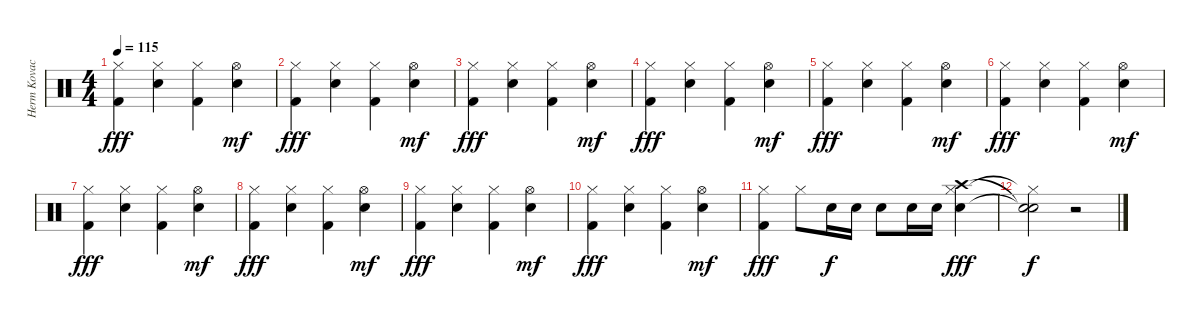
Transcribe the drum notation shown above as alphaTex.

\track ("Herm Kovacs" "Herm Kovac") {instrument percussion}
\staff {score}
\articulation defaults
\ts (4 4)
\tempo 115
\clef neutral
\ks c
("Hi-Hat (closed)" "Kick (hit) 2").4{dy fff} ("Hi-Hat (closed)" "Electric Snare (hit)").4 ("Hi-Hat (closed)" "Kick (hit) 2").4 ("Hi-Hat (open)" "Electric Snare (hit)").4{dy mf} |
("Hi-Hat (closed)" "Kick (hit) 2").4{dy fff} ("Hi-Hat (closed)" "Electric Snare (hit)").4 ("Hi-Hat (closed)" "Kick (hit) 2").4 ("Hi-Hat (open)" "Electric Snare (hit)").4{dy mf} |
("Hi-Hat (closed)" "Kick (hit) 2").4{dy fff} ("Hi-Hat (closed)" "Electric Snare (hit)").4 ("Hi-Hat (closed)" "Kick (hit) 2").4 ("Hi-Hat (open)" "Electric Snare (hit)").4{dy mf} |
("Hi-Hat (closed)" "Kick (hit) 2").4{dy fff} ("Hi-Hat (closed)" "Electric Snare (hit)").4 ("Hi-Hat (closed)" "Kick (hit) 2").4 ("Hi-Hat (open)" "Electric Snare (hit)").4{dy mf} |
("Hi-Hat (closed)" "Kick (hit) 2").4{dy fff} ("Hi-Hat (closed)" "Electric Snare (hit)").4 ("Hi-Hat (closed)" "Kick (hit) 2").4 ("Hi-Hat (open)" "Electric Snare (hit)").4{dy mf} |
("Hi-Hat (closed)" "Kick (hit) 2").4{dy fff} ("Hi-Hat (closed)" "Electric Snare (hit)").4 ("Hi-Hat (closed)" "Kick (hit) 2").4 ("Hi-Hat (open)" "Electric Snare (hit)").4{dy mf} |
("Hi-Hat (closed)" "Kick (hit) 2").4{dy fff} ("Hi-Hat (closed)" "Electric Snare (hit)").4 ("Hi-Hat (closed)" "Kick (hit) 2").4 ("Hi-Hat (open)" "Electric Snare (hit)").4{dy mf} |
("Hi-Hat (closed)" "Kick (hit) 2").4{dy fff} ("Hi-Hat (closed)" "Electric Snare (hit)").4 ("Hi-Hat (closed)" "Kick (hit) 2").4 ("Hi-Hat (open)" "Electric Snare (hit)").4{dy mf} |
("Hi-Hat (closed)" "Kick (hit) 2").4{dy fff} ("Hi-Hat (closed)" "Electric Snare (hit)").4 ("Hi-Hat (closed)" "Kick (hit) 2").4 ("Hi-Hat (open)" "Electric Snare (hit)").4{dy mf} |
("Hi-Hat (closed)" "Kick (hit) 2").4{dy fff} ("Hi-Hat (closed)" "Electric Snare (hit)").4 ("Hi-Hat (closed)" "Kick (hit) 2").4 ("Hi-Hat (open)" "Electric Snare (hit)").4{dy mf} |
("Hi-Hat (closed)" "Kick (hit) 2").4{dy fff} "Hi-Hat (closed)".8 "Electric Snare (hit)".16{dy f} "Electric Snare (hit)".16 "Electric Snare (hit)".8 "Electric Snare (hit)".16 "Electric Snare (hit)".16 ("Crash high (hit)" "Hi-Hat (closed)" "Electric Snare (hit)").4{dy fff} |
("Snare (hit)"{t} "Hi-Hat (closed)"{t} "Snare (hit)"{t}).2{dy f} r.2
